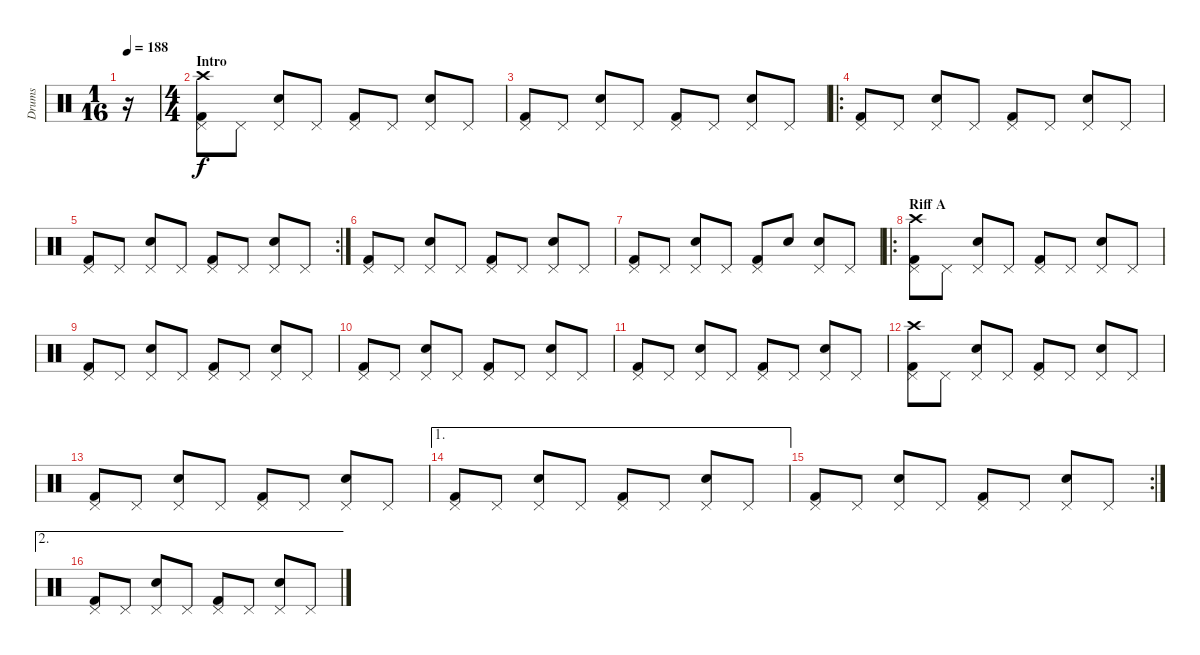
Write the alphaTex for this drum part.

\track ("Drums" "Drums") {instrument percussion}
\staff {score}
\articulation defaults
\ts (1 16)
\tempo 188
\clef neutral
\ks c
r.16{dy f} |
\ts (4 4)
\section ("" "Intro")
("Kick (hit) 2" "Pedal Hi-Hat (hit)" "Crash high (hit)").8 "Pedal Hi-Hat (hit)".8 ("Snare (hit) 2" "Pedal Hi-Hat (hit)").8 "Pedal Hi-Hat (hit)".8 ("Kick (hit) 2" "Pedal Hi-Hat (hit)").8 "Pedal Hi-Hat (hit)".8 ("Snare (hit) 2" "Pedal Hi-Hat (hit)").8 "Pedal Hi-Hat (hit)".8 |
("Kick (hit) 2" "Pedal Hi-Hat (hit)").8 "Pedal Hi-Hat (hit)".8 ("Snare (hit) 2" "Pedal Hi-Hat (hit)").8 "Pedal Hi-Hat (hit)".8 ("Kick (hit) 2" "Pedal Hi-Hat (hit)").8 "Pedal Hi-Hat (hit)".8 ("Snare (hit) 2" "Pedal Hi-Hat (hit)").8 "Pedal Hi-Hat (hit)".8 |
\ro
("Kick (hit) 2" "Pedal Hi-Hat (hit)").8 "Pedal Hi-Hat (hit)".8 ("Snare (hit) 2" "Pedal Hi-Hat (hit)").8 "Pedal Hi-Hat (hit)".8 ("Kick (hit) 2" "Pedal Hi-Hat (hit)").8 "Pedal Hi-Hat (hit)".8 ("Snare (hit) 2" "Pedal Hi-Hat (hit)").8 "Pedal Hi-Hat (hit)".8 |
\rc 2
("Kick (hit) 2" "Pedal Hi-Hat (hit)").8 "Pedal Hi-Hat (hit)".8 ("Snare (hit) 2" "Pedal Hi-Hat (hit)").8 "Pedal Hi-Hat (hit)".8 ("Kick (hit) 2" "Pedal Hi-Hat (hit)").8 "Pedal Hi-Hat (hit)".8 ("Snare (hit) 2" "Pedal Hi-Hat (hit)").8 "Pedal Hi-Hat (hit)".8 |
("Kick (hit) 2" "Pedal Hi-Hat (hit)").8 "Pedal Hi-Hat (hit)".8 ("Snare (hit) 2" "Pedal Hi-Hat (hit)").8 "Pedal Hi-Hat (hit)".8 ("Kick (hit) 2" "Pedal Hi-Hat (hit)").8 "Pedal Hi-Hat (hit)".8 ("Snare (hit) 2" "Pedal Hi-Hat (hit)").8 "Pedal Hi-Hat (hit)".8 |
("Kick (hit) 2" "Pedal Hi-Hat (hit)").8 "Pedal Hi-Hat (hit)".8 ("Snare (hit) 2" "Pedal Hi-Hat (hit)").8 "Pedal Hi-Hat (hit)".8 ("Kick (hit) 2" "Pedal Hi-Hat (hit)").8 "Snare (hit) 2".8 ("Snare (hit) 2" "Pedal Hi-Hat (hit)").8 "Pedal Hi-Hat (hit)".8 |
\ro
\section ("" "Riff A")
("Kick (hit) 2" "Pedal Hi-Hat (hit)" "Crash high (hit)").8 "Pedal Hi-Hat (hit)".8 ("Snare (hit) 2" "Pedal Hi-Hat (hit)").8 "Pedal Hi-Hat (hit)".8 ("Kick (hit) 2" "Pedal Hi-Hat (hit)").8 "Pedal Hi-Hat (hit)".8 ("Snare (hit) 2" "Pedal Hi-Hat (hit)").8 "Pedal Hi-Hat (hit)".8 |
("Kick (hit) 2" "Pedal Hi-Hat (hit)").8 "Pedal Hi-Hat (hit)".8 ("Snare (hit) 2" "Pedal Hi-Hat (hit)").8 "Pedal Hi-Hat (hit)".8 ("Kick (hit) 2" "Pedal Hi-Hat (hit)").8 "Pedal Hi-Hat (hit)".8 ("Snare (hit) 2" "Pedal Hi-Hat (hit)").8 "Pedal Hi-Hat (hit)".8 |
("Kick (hit) 2" "Pedal Hi-Hat (hit)").8 "Pedal Hi-Hat (hit)".8 ("Snare (hit) 2" "Pedal Hi-Hat (hit)").8 "Pedal Hi-Hat (hit)".8 ("Kick (hit) 2" "Pedal Hi-Hat (hit)").8 "Pedal Hi-Hat (hit)".8 ("Snare (hit) 2" "Pedal Hi-Hat (hit)").8 "Pedal Hi-Hat (hit)".8 |
("Kick (hit) 2" "Pedal Hi-Hat (hit)").8 "Pedal Hi-Hat (hit)".8 ("Snare (hit) 2" "Pedal Hi-Hat (hit)").8 "Pedal Hi-Hat (hit)".8 ("Kick (hit) 2" "Pedal Hi-Hat (hit)").8 "Pedal Hi-Hat (hit)".8 ("Snare (hit) 2" "Pedal Hi-Hat (hit)").8 "Pedal Hi-Hat (hit)".8 |
("Kick (hit) 2" "Pedal Hi-Hat (hit)" "Crash high (hit)").8 "Pedal Hi-Hat (hit)".8 ("Snare (hit) 2" "Pedal Hi-Hat (hit)").8 "Pedal Hi-Hat (hit)".8 ("Kick (hit) 2" "Pedal Hi-Hat (hit)").8 "Pedal Hi-Hat (hit)".8 ("Snare (hit) 2" "Pedal Hi-Hat (hit)").8 "Pedal Hi-Hat (hit)".8 |
("Kick (hit) 2" "Pedal Hi-Hat (hit)").8 "Pedal Hi-Hat (hit)".8 ("Snare (hit) 2" "Pedal Hi-Hat (hit)").8 "Pedal Hi-Hat (hit)".8 ("Kick (hit) 2" "Pedal Hi-Hat (hit)").8 "Pedal Hi-Hat (hit)".8 ("Snare (hit) 2" "Pedal Hi-Hat (hit)").8 "Pedal Hi-Hat (hit)".8 |
\ae 1
("Kick (hit) 2" "Pedal Hi-Hat (hit)").8 "Pedal Hi-Hat (hit)".8 ("Snare (hit) 2" "Pedal Hi-Hat (hit)").8 "Pedal Hi-Hat (hit)".8 ("Kick (hit) 2" "Pedal Hi-Hat (hit)").8 "Pedal Hi-Hat (hit)".8 ("Snare (hit) 2" "Pedal Hi-Hat (hit)").8 "Pedal Hi-Hat (hit)".8 |
\rc 2
("Kick (hit) 2" "Pedal Hi-Hat (hit)").8 "Pedal Hi-Hat (hit)".8 ("Snare (hit) 2" "Pedal Hi-Hat (hit)").8 "Pedal Hi-Hat (hit)".8 ("Kick (hit) 2" "Pedal Hi-Hat (hit)").8 "Pedal Hi-Hat (hit)".8 ("Snare (hit) 2" "Pedal Hi-Hat (hit)").8 "Pedal Hi-Hat (hit)".8 |
\ae 2
("Kick (hit) 2" "Pedal Hi-Hat (hit)").8 "Pedal Hi-Hat (hit)".8 ("Snare (hit) 2" "Pedal Hi-Hat (hit)").8 "Pedal Hi-Hat (hit)".8 ("Kick (hit) 2" "Pedal Hi-Hat (hit)").8 "Pedal Hi-Hat (hit)".8 ("Snare (hit) 2" "Pedal Hi-Hat (hit)").8 "Pedal Hi-Hat (hit)".8
